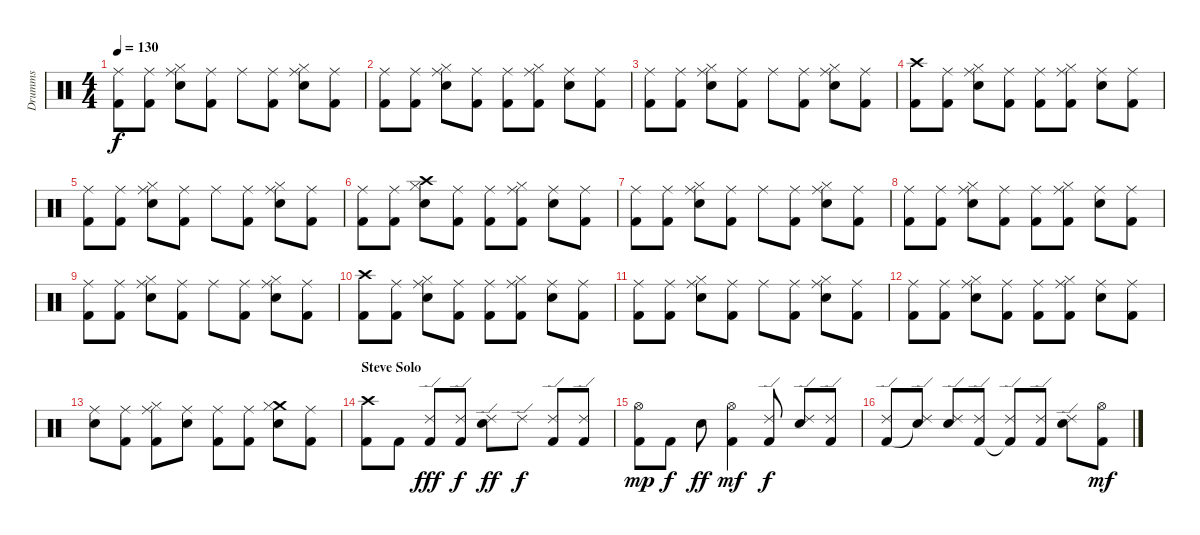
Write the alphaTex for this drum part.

\track ("Drumms" "Drumms") {instrument percussion}
\staff {score}
\articulation defaults
\ts (4 4)
\tempo 130
\clef neutral
\ks c
("Ride (middle)" "Kick (hit) 2").8{dy f} ("Ride (middle)" "Kick (hit) 2").8 ("Ride (middle)" "Hi-Hat (closed)" "Electric Snare (hit)").8 ("Ride (middle)" "Kick (hit) 2").8 "Ride (middle)".8 ("Ride (middle)" "Kick (hit) 2").8 ("Ride (middle)" "Hi-Hat (closed)" "Electric Snare (hit)").8 ("Ride (middle)" "Kick (hit) 2").8 |
("Ride (middle)" "Kick (hit) 2").8 ("Ride (middle)" "Kick (hit) 2").8 ("Ride (middle)" "Hi-Hat (closed)" "Electric Snare (hit)").8 ("Ride (middle)" "Kick (hit) 2").8 ("Ride (middle)" "Kick (hit) 2").8 ("Ride (middle)" "Hi-Hat (closed)" "Kick (hit) 2").8 ("Ride (middle)" "Electric Snare (hit)").8 ("Ride (middle)" "Kick (hit) 2").8 |
("Ride (middle)" "Kick (hit) 2").8 ("Ride (middle)" "Kick (hit) 2").8 ("Ride (middle)" "Hi-Hat (closed)" "Electric Snare (hit)").8 ("Ride (middle)" "Kick (hit) 2").8 "Ride (middle)".8 ("Ride (middle)" "Kick (hit) 2").8 ("Ride (middle)" "Hi-Hat (closed)" "Electric Snare (hit)").8 ("Ride (middle)" "Kick (hit) 2").8 |
("Crash high (hit)" "Kick (hit) 2").8 ("Ride (middle)" "Kick (hit) 2").8 ("Ride (middle)" "Hi-Hat (closed)" "Electric Snare (hit)").8 ("Ride (middle)" "Kick (hit) 2").8 ("Ride (middle)" "Kick (hit) 2").8 ("Ride (middle)" "Hi-Hat (closed)" "Kick (hit) 2").8 ("Ride (middle)" "Electric Snare (hit)").8 ("Ride (middle)" "Kick (hit) 2").8 |
("Ride (middle)" "Kick (hit) 2").8 ("Ride (middle)" "Kick (hit) 2").8 ("Ride (middle)" "Hi-Hat (closed)" "Electric Snare (hit)").8 ("Ride (middle)" "Kick (hit) 2").8 "Ride (middle)".8 ("Ride (middle)" "Kick (hit) 2").8 ("Ride (middle)" "Hi-Hat (closed)" "Electric Snare (hit)").8 ("Ride (middle)" "Kick (hit) 2").8 |
("Ride (middle)" "Kick (hit) 2").8 ("Ride (middle)" "Kick (hit) 2").8 ("Crash high (hit)" "Hi-Hat (closed)" "Electric Snare (hit)").8 ("Ride (middle)" "Kick (hit) 2").8 ("Ride (middle)" "Kick (hit) 2").8 ("Ride (middle)" "Hi-Hat (closed)" "Kick (hit) 2").8 ("Ride (middle)" "Electric Snare (hit)").8 ("Ride (middle)" "Kick (hit) 2").8 |
("Ride (middle)" "Kick (hit) 2").8 ("Ride (middle)" "Kick (hit) 2").8 ("Ride (middle)" "Hi-Hat (closed)" "Electric Snare (hit)").8 ("Ride (middle)" "Kick (hit) 2").8 "Ride (middle)".8 ("Ride (middle)" "Kick (hit) 2").8 ("Ride (middle)" "Hi-Hat (closed)" "Electric Snare (hit)").8 ("Ride (middle)" "Kick (hit) 2").8 |
("Ride (middle)" "Kick (hit) 2").8 ("Ride (middle)" "Kick (hit) 2").8 ("Ride (middle)" "Hi-Hat (closed)" "Electric Snare (hit)").8 ("Ride (middle)" "Kick (hit) 2").8 ("Ride (middle)" "Kick (hit) 2").8 ("Ride (middle)" "Hi-Hat (closed)" "Kick (hit) 2").8 ("Ride (middle)" "Electric Snare (hit)").8 ("Ride (middle)" "Kick (hit) 2").8 |
("Ride (middle)" "Kick (hit) 2").8 ("Ride (middle)" "Kick (hit) 2").8 ("Ride (middle)" "Hi-Hat (closed)" "Electric Snare (hit)").8 ("Ride (middle)" "Kick (hit) 2").8 "Ride (middle)".8 ("Ride (middle)" "Kick (hit) 2").8 ("Ride (middle)" "Hi-Hat (closed)" "Electric Snare (hit)").8 ("Ride (middle)" "Kick (hit) 2").8 |
("Crash high (hit)" "Kick (hit) 2").8 ("Ride (middle)" "Kick (hit) 2").8 ("Ride (middle)" "Hi-Hat (closed)" "Electric Snare (hit)").8 ("Ride (middle)" "Kick (hit) 2").8 ("Ride (middle)" "Kick (hit) 2").8 ("Ride (middle)" "Hi-Hat (closed)" "Kick (hit) 2").8 ("Ride (middle)" "Electric Snare (hit)").8 ("Ride (middle)" "Kick (hit) 2").8 |
("Ride (middle)" "Kick (hit) 2").8 ("Ride (middle)" "Kick (hit) 2").8 ("Ride (middle)" "Hi-Hat (closed)" "Electric Snare (hit)").8 ("Ride (middle)" "Kick (hit) 2").8 "Ride (middle)".8 ("Ride (middle)" "Kick (hit) 2").8 ("Ride (middle)" "Hi-Hat (closed)" "Electric Snare (hit)").8 ("Ride (middle)" "Kick (hit) 2").8 |
("Ride (middle)" "Kick (hit) 2").8 ("Ride (middle)" "Kick (hit) 2").8 ("Ride (middle)" "Hi-Hat (closed)" "Electric Snare (hit)").8 ("Ride (middle)" "Kick (hit) 2").8 ("Ride (middle)" "Kick (hit) 2").8 ("Ride (middle)" "Hi-Hat (closed)" "Kick (hit) 2").8 ("Ride (middle)" "Electric Snare (hit)").8 ("Ride (middle)" "Kick (hit) 2").8 |
("Ride (middle)" "Electric Snare (hit)").8 ("Ride (middle)" "Kick (hit) 2").8 ("Ride (middle)" "Hi-Hat (closed)" "Kick (hit) 2").8 ("Ride (middle)" "Electric Snare (hit)").8 ("Ride (middle)" "Kick (hit) 2").8 ("Ride (middle)" "Kick (hit) 2").8 ("Crash medium (hit)" "Hi-Hat (closed)" "Electric Snare (hit)").8 ("Ride (middle)" "Kick (hit) 2").8 |
\section ("" "Steve Solo")
("Crash high (hit)" "Kick (hit) 2").8 "Kick (hit) 2".8 ("Ride (edge) 2" "Kick (hit) 2").8{dy fff} ("Ride (edge) 2" "Kick (hit) 2").8{dy f} ("Ride (edge) 2" "Electric Snare (hit)").8{dy ff} "Ride (edge) 2".8{dy f} ("Ride (edge) 2" "Kick (hit) 2").8 ("Ride (edge) 2" "Kick (hit) 2").8 |
("Hi-Hat (open)" "Kick (hit) 2").8{dy mp} "Kick (hit) 2".8{dy f} "Electric Snare (hit)".8{dy ff} ("Hi-Hat (open)" "Kick (hit) 2").4{dy mf} ("Ride (edge) 2" "Kick (hit) 2").8{dy f} ("Ride (edge) 2" "Electric Snare (hit)").8 ("Ride (edge) 2" "Kick (hit) 2").8 |
("Ride (edge) 2" "Kick (hit) 2").8 ("Ride (edge) 2" "Electric Snare (hit)"{t}).8 ("Ride (edge) 2" "Electric Snare (hit)").8 ("Ride (edge) 2" "Kick (hit) 2").8 ("Ride (edge) 2" "Kick (hit) 2"{t}).8 ("Ride (edge) 2" "Kick (hit) 2").8 ("Ride (edge) 2" "Electric Snare (hit)").8 ("Hi-Hat (open)" "Kick (hit) 2").8{dy mf}
